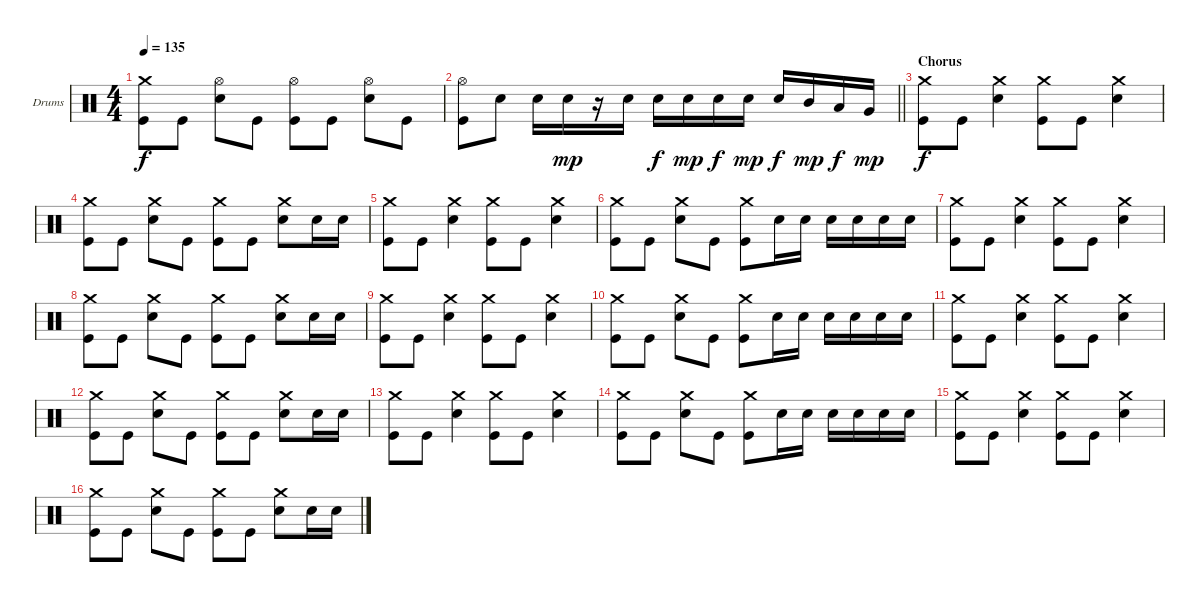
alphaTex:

\bracketExtendMode groupsimilarinstruments
\firstSystemTrackNameOrientation horizontal
\otherSystemsTrackNameOrientation horizontal
\track ("Drumkit" "Drums") {instrument percussion}
\staff {score}
\articulation defaults
\ts (4 4)
\tempo 135
\clef neutral
\ks c
("Crash medium (hit)" "Kick (hit)").8{dy f} "Kick (hit)".8 ("Hi-Hat (open)" "Snare (hit) 2").8 "Kick (hit)".8 ("Kick (hit)" "Hi-Hat (open)").8 "Kick (hit)".8 ("Hi-Hat (open)" "Snare (hit) 2").8 "Kick (hit)".8 |
\barLineRight lightlight
("Kick (hit)" "Hi-Hat (open)").8 "Snare (hit) 2".8 "Snare (hit) 2".16 "Snare (hit) 2".16{dy mp} r.16 "Snare (hit) 2".16 "Snare (hit) 2".16{dy f} "Snare (hit) 2".16{dy mp} "Snare (hit) 2".16{dy f} "Snare (hit) 2".16{dy mp} "Snare (hit) 2".16{dy f} "Mid Tom (hit)".16{dy mp} "Low Tom (hit)".16{dy f} "Very Low Tom (hit)".16{dy mp} |
\section ("" "Chorus")
("Crash medium (hit)" "Kick (hit)").8{dy f} "Kick (hit)".8 ("Snare (hit) 2" "Crash medium (hit)").4 ("Crash medium (hit)" "Kick (hit)").8 "Kick (hit)".8 ("Snare (hit) 2" "Crash medium (hit)").4 |
("Crash medium (hit)" "Kick (hit)").8 "Kick (hit)".8 ("Snare (hit) 2" "Crash medium (hit)").8 "Kick (hit)".8 ("Crash medium (hit)" "Kick (hit)").8 "Kick (hit)".8 ("Snare (hit) 2" "Crash medium (hit)").8 "Snare (hit) 2".16 "Snare (hit) 2".16 |
("Crash medium (hit)" "Kick (hit)").8 "Kick (hit)".8 ("Snare (hit) 2" "Crash medium (hit)").4 ("Crash medium (hit)" "Kick (hit)").8 "Kick (hit)".8 ("Snare (hit) 2" "Crash medium (hit)").4 |
("Crash medium (hit)" "Kick (hit)").8 "Kick (hit)".8 ("Snare (hit) 2" "Crash medium (hit)").8 "Kick (hit)".8 ("Crash medium (hit)" "Kick (hit)").8 "Snare (hit) 2".16 "Snare (hit) 2".16 "Snare (hit) 2".16 "Snare (hit) 2".16 "Snare (hit) 2".16 "Snare (hit) 2".16 |
("Crash medium (hit)" "Kick (hit)").8 "Kick (hit)".8 ("Snare (hit) 2" "Crash medium (hit)").4 ("Crash medium (hit)" "Kick (hit)").8 "Kick (hit)".8 ("Snare (hit) 2" "Crash medium (hit)").4 |
("Crash medium (hit)" "Kick (hit)").8 "Kick (hit)".8 ("Snare (hit) 2" "Crash medium (hit)").8 "Kick (hit)".8 ("Crash medium (hit)" "Kick (hit)").8 "Kick (hit)".8 ("Snare (hit) 2" "Crash medium (hit)").8 "Snare (hit) 2".16 "Snare (hit) 2".16 |
("Crash medium (hit)" "Kick (hit)").8 "Kick (hit)".8 ("Snare (hit) 2" "Crash medium (hit)").4 ("Crash medium (hit)" "Kick (hit)").8 "Kick (hit)".8 ("Snare (hit) 2" "Crash medium (hit)").4 |
("Crash medium (hit)" "Kick (hit)").8 "Kick (hit)".8 ("Snare (hit) 2" "Crash medium (hit)").8 "Kick (hit)".8 ("Crash medium (hit)" "Kick (hit)").8 "Snare (hit) 2".16 "Snare (hit) 2".16 "Snare (hit) 2".16 "Snare (hit) 2".16 "Snare (hit) 2".16 "Snare (hit) 2".16 |
("Crash medium (hit)" "Kick (hit)").8 "Kick (hit)".8 ("Snare (hit) 2" "Crash medium (hit)").4 ("Crash medium (hit)" "Kick (hit)").8 "Kick (hit)".8 ("Snare (hit) 2" "Crash medium (hit)").4 |
("Crash medium (hit)" "Kick (hit)").8 "Kick (hit)".8 ("Snare (hit) 2" "Crash medium (hit)").8 "Kick (hit)".8 ("Crash medium (hit)" "Kick (hit)").8 "Kick (hit)".8 ("Snare (hit) 2" "Crash medium (hit)").8 "Snare (hit) 2".16 "Snare (hit) 2".16 |
("Crash medium (hit)" "Kick (hit)").8 "Kick (hit)".8 ("Snare (hit) 2" "Crash medium (hit)").4 ("Crash medium (hit)" "Kick (hit)").8 "Kick (hit)".8 ("Snare (hit) 2" "Crash medium (hit)").4 |
("Crash medium (hit)" "Kick (hit)").8 "Kick (hit)".8 ("Snare (hit) 2" "Crash medium (hit)").8 "Kick (hit)".8 ("Crash medium (hit)" "Kick (hit)").8 "Snare (hit) 2".16 "Snare (hit) 2".16 "Snare (hit) 2".16 "Snare (hit) 2".16 "Snare (hit) 2".16 "Snare (hit) 2".16 |
("Crash medium (hit)" "Kick (hit)").8 "Kick (hit)".8 ("Snare (hit) 2" "Crash medium (hit)").4 ("Crash medium (hit)" "Kick (hit)").8 "Kick (hit)".8 ("Snare (hit) 2" "Crash medium (hit)").4 |
("Crash medium (hit)" "Kick (hit)").8 "Kick (hit)".8 ("Snare (hit) 2" "Crash medium (hit)").8 "Kick (hit)".8 ("Crash medium (hit)" "Kick (hit)").8 "Kick (hit)".8 ("Snare (hit) 2" "Crash medium (hit)").8 "Snare (hit) 2".16 "Snare (hit) 2".16
